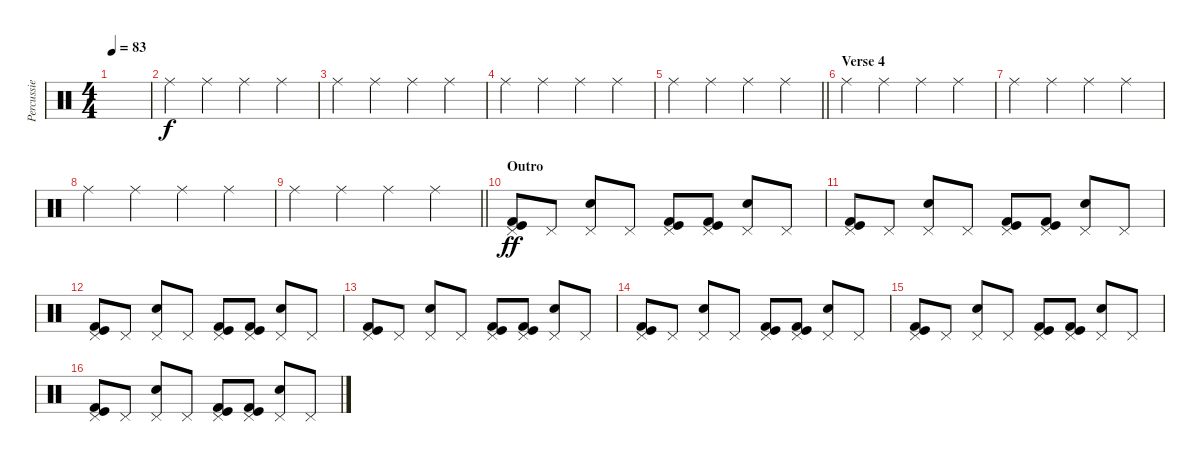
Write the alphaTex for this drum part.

\track ("Percussie" "Percussie") {instrument percussion}
\staff {score}
\articulation defaults
\ts (4 4)
\tempo 83
\clef neutral
\ks c
|
"Ride (middle)".4{dy f} "Ride (middle)".4 "Ride (middle)".4 "Ride (middle)".4 |
"Ride (middle)".4 "Ride (middle)".4 "Ride (middle)".4 "Ride (middle)".4 |
"Ride (middle)".4 "Ride (middle)".4 "Ride (middle)".4 "Ride (middle)".4 |
\barLineRight lightlight "Ride (middle)".4 "Ride (middle)".4 "Ride (middle)".4 "Ride (middle)".4
|
\section ("" "Verse 4")
"Ride (middle)".4 "Ride (middle)".4 "Ride (middle)".4 "Ride (middle)".4 |
"Ride (middle)".4 "Ride (middle)".4 "Ride (middle)".4 "Ride (middle)".4 |
"Ride (middle)".4 "Ride (middle)".4 "Ride (middle)".4 "Ride (middle)".4 |
\barLineRight lightlight "Ride (middle)".4 "Ride (middle)".4 "Ride (middle)".4 "Ride (middle)".4
|
\section ("" "Outro")
("Pedal Hi-Hat (hit)" "Kick (hit)" "Kick (hit) 2").8{dy ff} "Pedal Hi-Hat (hit)".8 ("Pedal Hi-Hat (hit)" "Snare (hit) 2").8 "Pedal Hi-Hat (hit)".8 ("Pedal Hi-Hat (hit)" "Kick (hit)" "Kick (hit) 2").8 ("Pedal Hi-Hat (hit)" "Kick (hit)" "Kick (hit) 2").8 ("Pedal Hi-Hat (hit)" "Snare (hit) 2").8 "Pedal Hi-Hat (hit)".8 |
("Pedal Hi-Hat (hit)" "Kick (hit)" "Kick (hit) 2").8 "Pedal Hi-Hat (hit)".8 ("Pedal Hi-Hat (hit)" "Snare (hit) 2").8 "Pedal Hi-Hat (hit)".8 ("Pedal Hi-Hat (hit)" "Kick (hit)" "Kick (hit) 2").8 ("Pedal Hi-Hat (hit)" "Kick (hit)" "Kick (hit) 2").8 ("Pedal Hi-Hat (hit)" "Snare (hit) 2").8 "Pedal Hi-Hat (hit)".8 |
("Pedal Hi-Hat (hit)" "Kick (hit)" "Kick (hit) 2").8 "Pedal Hi-Hat (hit)".8 ("Pedal Hi-Hat (hit)" "Snare (hit) 2").8 "Pedal Hi-Hat (hit)".8 ("Pedal Hi-Hat (hit)" "Kick (hit)" "Kick (hit) 2").8 ("Pedal Hi-Hat (hit)" "Kick (hit)" "Kick (hit) 2").8 ("Pedal Hi-Hat (hit)" "Snare (hit) 2").8 "Pedal Hi-Hat (hit)".8 |
("Pedal Hi-Hat (hit)" "Kick (hit)" "Kick (hit) 2").8 "Pedal Hi-Hat (hit)".8 ("Pedal Hi-Hat (hit)" "Snare (hit) 2").8 "Pedal Hi-Hat (hit)".8 ("Pedal Hi-Hat (hit)" "Kick (hit)" "Kick (hit) 2").8 ("Pedal Hi-Hat (hit)" "Kick (hit)" "Kick (hit) 2").8 ("Pedal Hi-Hat (hit)" "Snare (hit) 2").8 "Pedal Hi-Hat (hit)".8 |
("Pedal Hi-Hat (hit)" "Kick (hit)" "Kick (hit) 2").8 "Pedal Hi-Hat (hit)".8 ("Pedal Hi-Hat (hit)" "Snare (hit) 2").8 "Pedal Hi-Hat (hit)".8 ("Pedal Hi-Hat (hit)" "Kick (hit)" "Kick (hit) 2").8 ("Pedal Hi-Hat (hit)" "Kick (hit)" "Kick (hit) 2").8 ("Pedal Hi-Hat (hit)" "Snare (hit) 2").8 "Pedal Hi-Hat (hit)".8 |
("Pedal Hi-Hat (hit)" "Kick (hit)" "Kick (hit) 2").8 "Pedal Hi-Hat (hit)".8 ("Pedal Hi-Hat (hit)" "Snare (hit) 2").8 "Pedal Hi-Hat (hit)".8 ("Pedal Hi-Hat (hit)" "Kick (hit)" "Kick (hit) 2").8 ("Pedal Hi-Hat (hit)" "Kick (hit)" "Kick (hit) 2").8 ("Pedal Hi-Hat (hit)" "Snare (hit) 2").8 "Pedal Hi-Hat (hit)".8 |
("Pedal Hi-Hat (hit)" "Kick (hit)" "Kick (hit) 2").8 "Pedal Hi-Hat (hit)".8 ("Pedal Hi-Hat (hit)" "Snare (hit) 2").8 "Pedal Hi-Hat (hit)".8 ("Pedal Hi-Hat (hit)" "Kick (hit)" "Kick (hit) 2").8 ("Pedal Hi-Hat (hit)" "Kick (hit)" "Kick (hit) 2").8 ("Pedal Hi-Hat (hit)" "Snare (hit) 2").8 "Pedal Hi-Hat (hit)".8
